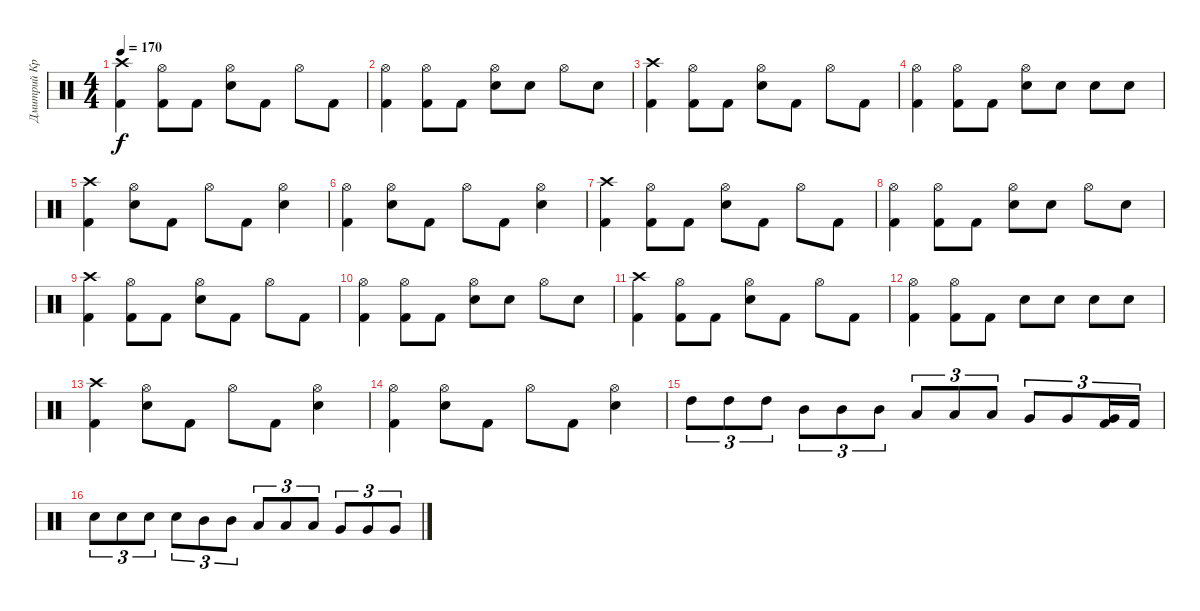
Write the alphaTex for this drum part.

\track ("Дмитрий Кривенков" "Дмитрий Кр") {instrument percussion}
\staff {score}
\articulation defaults
\ts (4 4)
\tempo 170
\clef neutral
\ks c
("Crash high (hit)" "Kick (hit) 2").4{dy f} ("Hi-Hat (open)" "Kick (hit) 2").8 "Kick (hit) 2".8 ("Hi-Hat (open)" "Electric Snare (hit)").8 "Kick (hit) 2".8 "Hi-Hat (open)".8 "Kick (hit) 2".8 |
("Hi-Hat (open)" "Kick (hit) 2").4 ("Hi-Hat (open)" "Kick (hit) 2").8 "Kick (hit) 2".8 ("Hi-Hat (open)" "Electric Snare (hit)").8 "Electric Snare (hit)".8 "Hi-Hat (open)".8 "Electric Snare (hit)".8 |
("Crash high (hit)" "Kick (hit) 2").4 ("Hi-Hat (open)" "Kick (hit) 2").8 "Kick (hit) 2".8 ("Hi-Hat (open)" "Electric Snare (hit)").8 "Kick (hit) 2".8 "Hi-Hat (open)".8 "Kick (hit) 2".8 |
("Hi-Hat (open)" "Kick (hit) 2").4 ("Hi-Hat (open)" "Kick (hit) 2").8 "Kick (hit) 2".8 ("Hi-Hat (open)" "Electric Snare (hit)").8 "Electric Snare (hit)".8 "Electric Snare (hit)".8 "Electric Snare (hit)".8 |
("Crash high (hit)" "Kick (hit) 2").4 ("Hi-Hat (open)" "Electric Snare (hit)").8 "Kick (hit) 2".8 "Hi-Hat (open)".8 "Kick (hit) 2".8 ("Hi-Hat (open)" "Electric Snare (hit)").4 |
("Hi-Hat (open)" "Kick (hit) 2").4 ("Hi-Hat (open)" "Electric Snare (hit)").8 "Kick (hit) 2".8 "Hi-Hat (open)".8 "Kick (hit) 2".8 ("Hi-Hat (open)" "Electric Snare (hit)").4 |
("Crash high (hit)" "Kick (hit) 2").4 ("Hi-Hat (open)" "Kick (hit) 2").8 "Kick (hit) 2".8 ("Hi-Hat (open)" "Electric Snare (hit)").8 "Kick (hit) 2".8 "Hi-Hat (open)".8 "Kick (hit) 2".8 |
("Hi-Hat (open)" "Kick (hit) 2").4 ("Hi-Hat (open)" "Kick (hit) 2").8 "Kick (hit) 2".8 ("Hi-Hat (open)" "Electric Snare (hit)").8 "Electric Snare (hit)".8 "Hi-Hat (open)".8 "Electric Snare (hit)".8 |
("Crash high (hit)" "Kick (hit) 2").4 ("Hi-Hat (open)" "Kick (hit) 2").8 "Kick (hit) 2".8 ("Hi-Hat (open)" "Electric Snare (hit)").8 "Kick (hit) 2".8 "Hi-Hat (open)".8 "Kick (hit) 2".8 |
("Hi-Hat (open)" "Kick (hit) 2").4 ("Hi-Hat (open)" "Kick (hit) 2").8 "Kick (hit) 2".8 ("Hi-Hat (open)" "Electric Snare (hit)").8 "Electric Snare (hit)".8 "Hi-Hat (open)".8 "Electric Snare (hit)".8 |
("Crash high (hit)" "Kick (hit) 2").4 ("Hi-Hat (open)" "Kick (hit) 2").8 "Kick (hit) 2".8 ("Hi-Hat (open)" "Electric Snare (hit)").8 "Kick (hit) 2".8 "Hi-Hat (open)".8 "Kick (hit) 2".8 |
("Hi-Hat (open)" "Kick (hit) 2").4 ("Hi-Hat (open)" "Kick (hit) 2").8 "Kick (hit) 2".8 "Electric Snare (hit)".8 "Electric Snare (hit)".8 "Electric Snare (hit)".8 "Electric Snare (hit)".8 |
("Crash high (hit)" "Kick (hit) 2").4 ("Hi-Hat (open)" "Electric Snare (hit)").8 "Kick (hit) 2".8 "Hi-Hat (open)".8 "Kick (hit) 2".8 ("Hi-Hat (open)" "Electric Snare (hit)").4 |
("Hi-Hat (open)" "Kick (hit) 2").4 ("Hi-Hat (open)" "Electric Snare (hit)").8 "Kick (hit) 2".8 "Hi-Hat (open)".8 "Kick (hit) 2".8 ("Hi-Hat (open)" "Electric Snare (hit)").4 |
"High Tom (hit)".8{tu (3 2)} "High Tom (hit)".8{tu (3 2)} "High Tom (hit)".8{tu (3 2)} "Mid Tom (hit)".8{tu (3 2)} "Mid Tom (hit)".8{tu (3 2)} "Mid Tom (hit)".8{tu (3 2)} "Low Tom (hit)".8{tu (3 2)} "Low Tom (hit)".8{tu (3 2)} "Low Tom (hit)".8{tu (3 2)} "Very Low Tom (hit)".8{tu (3 2)} "Very Low Tom (hit)".8{tu (3 2)} ("Very Low Tom (hit)" "Kick (hit) 2").16{tu (3 2)} "Kick (hit) 2".16{tu (3 2)} |
"Electric Snare (hit)".8{tu (3 2)} "Electric Snare (hit)".8{tu (3 2)} "Electric Snare (hit)".8{tu (3 2)} "Electric Snare (hit)".8{tu (3 2)} "Mid Tom (hit)".8{tu (3 2)} "Mid Tom (hit)".8{tu (3 2)} "Low Tom (hit)".8{tu (3 2)} "Low Tom (hit)".8{tu (3 2)} "Low Tom (hit)".8{tu (3 2)} "Very Low Tom (hit)".8{tu (3 2)} "Very Low Tom (hit)".8{tu (3 2)} "Very Low Tom (hit)".8{tu (3 2)}
